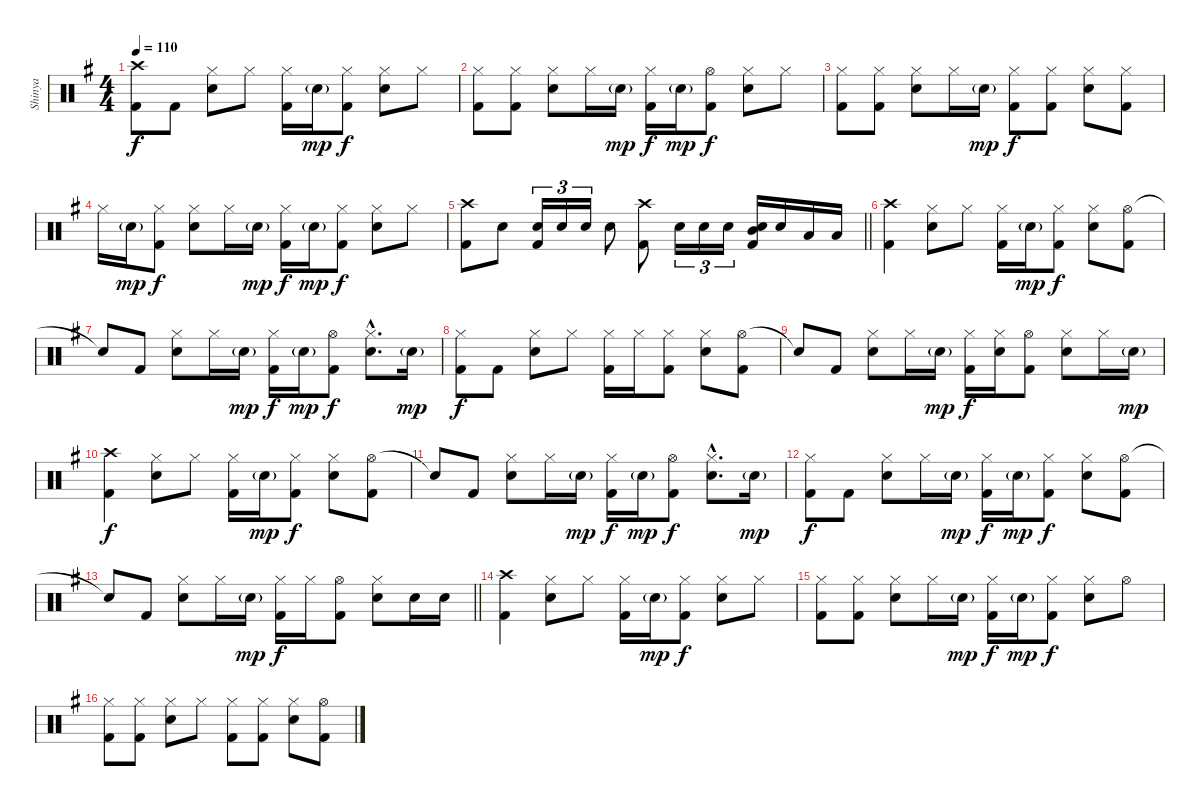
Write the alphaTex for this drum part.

\track ("Shinya" "Shinya") {instrument percussion}
\staff {score}
\articulation defaults
\ts (4 4)
\tempo 110
\clef neutral
\ks g
("Crash high (hit)" "Kick (hit) 2").8{dy f} "Kick (hit) 2".8 ("Hi-Hat (closed)" "Electric Snare (hit)").8 "Hi-Hat (closed)".8 ("Hi-Hat (closed)" "Kick (hit) 2").16 "Electric Snare (hit)"{g}.16{dy mp} ("Hi-Hat (closed)" "Kick (hit) 2").8{dy f} ("Hi-Hat (closed)" "Electric Snare (hit)").8 "Hi-Hat (closed)".8 |
("Hi-Hat (closed)" "Kick (hit) 2").8 ("Hi-Hat (closed)" "Kick (hit) 2").8 ("Hi-Hat (closed)" "Electric Snare (hit)").8 "Hi-Hat (closed)".16 "Electric Snare (hit)"{g}.16{dy mp} ("Hi-Hat (closed)" "Kick (hit) 2").16{dy f} "Electric Snare (hit)"{g}.16{dy mp} ("Hi-Hat (open)" "Kick (hit) 2").8{dy f} ("Hi-Hat (closed)" "Electric Snare (hit)").8 "Hi-Hat (closed)".8 |
("Hi-Hat (closed)" "Kick (hit) 2").8 ("Hi-Hat (closed)" "Kick (hit) 2").8 ("Hi-Hat (closed)" "Electric Snare (hit)").8 "Hi-Hat (closed)".16 "Electric Snare (hit)"{g}.16{dy mp} ("Hi-Hat (closed)" "Kick (hit) 2").8{dy f} ("Hi-Hat (closed)" "Kick (hit) 2").8 ("Hi-Hat (closed)" "Electric Snare (hit)").8 ("Hi-Hat (closed)" "Kick (hit) 2").8 |
"Hi-Hat (closed)".16 "Electric Snare (hit)"{g}.16{dy mp} ("Hi-Hat (closed)" "Kick (hit) 2").8{dy f} ("Hi-Hat (closed)" "Electric Snare (hit)").8 "Hi-Hat (closed)".16 "Electric Snare (hit)"{g}.16{dy mp} ("Hi-Hat (closed)" "Kick (hit) 2").16{dy f} "Electric Snare (hit)"{g}.16{dy mp} ("Hi-Hat (closed)" "Kick (hit) 2").8{dy f} ("Hi-Hat (closed)" "Electric Snare (hit)").8 "Hi-Hat (closed)".8 |
\barLineRight lightlight
("Crash high (hit)" "Kick (hit) 2").8 "Electric Snare (hit)".8 ("Electric Snare (hit)" "Kick (hit) 2").16{tu (3 2)} "Electric Snare (hit)".16{tu (3 2)} "Electric Snare (hit)".16{tu (3 2)} "Electric Snare (hit)".8 ("Crash high (hit)" "Kick (hit) 2").8 "Electric Snare (hit)".16{tu (3 2)} "Electric Snare (hit)".16{tu (3 2)} "Electric Snare (hit)".16{tu (3 2)} ("Mid Tom (hit)" "Electric Snare (hit)" "Kick (hit) 2").16 "Electric Snare (hit)".16 "Low Tom (hit)".16 "Low Tom (hit)".16 |
("Crash high (hit)" "Kick (hit) 2").4 ("Hi-Hat (closed)" "Electric Snare (hit)").8 "Hi-Hat (closed)".8 ("Hi-Hat (closed)" "Kick (hit) 2").16 "Electric Snare (hit)"{g}.16{dy mp} ("Hi-Hat (closed)" "Kick (hit) 2").8{dy f} ("Hi-Hat (closed)" "Electric Snare (hit)").8 ("Hi-Hat (open)" "Kick (hit) 2").8 |
"Snare (hit)"{t}.8 "Kick (hit) 2".8 ("Hi-Hat (closed)" "Electric Snare (hit)").8 "Hi-Hat (closed)".16 "Electric Snare (hit)"{g}.16{dy mp} ("Hi-Hat (closed)" "Kick (hit) 2").16{dy f} "Electric Snare (hit)"{g}.16{dy mp} ("Hi-Hat (open)" "Kick (hit) 2").8{dy f} ("Hi-Hat (closed)"{hac} "Electric Snare (hit)"{hac}).8{d} "Electric Snare (hit)"{g}.16{dy mp} |
("Hi-Hat (closed)" "Kick (hit) 2").8{dy f} "Kick (hit) 2".8 ("Hi-Hat (closed)" "Electric Snare (hit)").8 "Hi-Hat (closed)".8 ("Hi-Hat (closed)" "Kick (hit) 2").16 "Hi-Hat (closed)".16 ("Hi-Hat (closed)" "Kick (hit) 2").8 ("Hi-Hat (closed)" "Electric Snare (hit)").8 ("Hi-Hat (open)" "Kick (hit) 2").8 |
"Snare (hit)"{t}.8 "Kick (hit) 2".8 ("Hi-Hat (closed)" "Electric Snare (hit)").8 "Hi-Hat (closed)".16 "Electric Snare (hit)"{g}.16{dy mp} ("Hi-Hat (closed)" "Kick (hit) 2").16{dy f} ("Hi-Hat (closed)" "Electric Snare (hit)").16 ("Hi-Hat (open)" "Kick (hit) 2").8 ("Hi-Hat (closed)" "Electric Snare (hit)").8 "Hi-Hat (closed)".16 "Electric Snare (hit)"{g}.16{dy mp} |
("Crash high (hit)" "Kick (hit) 2").4{dy f} ("Hi-Hat (closed)" "Electric Snare (hit)").8 "Hi-Hat (closed)".8 ("Hi-Hat (closed)" "Kick (hit) 2").16 "Electric Snare (hit)"{g}.16{dy mp} ("Hi-Hat (closed)" "Kick (hit) 2").8{dy f} ("Hi-Hat (closed)" "Electric Snare (hit)").8 ("Hi-Hat (open)" "Kick (hit) 2").8 |
"Snare (hit)"{t}.8 "Kick (hit) 2".8 ("Hi-Hat (closed)" "Electric Snare (hit)").8 "Hi-Hat (closed)".16 "Electric Snare (hit)"{g}.16{dy mp} ("Hi-Hat (closed)" "Kick (hit) 2").16{dy f} "Electric Snare (hit)"{g}.16{dy mp} ("Hi-Hat (open)" "Kick (hit) 2").8{dy f} ("Hi-Hat (closed)"{hac} "Electric Snare (hit)"{hac}).8{d} "Electric Snare (hit)"{g}.16{dy mp} |
("Hi-Hat (closed)" "Kick (hit) 2").8{dy f} "Kick (hit) 2".8 ("Hi-Hat (closed)" "Electric Snare (hit)").8 "Hi-Hat (closed)".16 "Electric Snare (hit)"{g}.16{dy mp} ("Hi-Hat (closed)" "Kick (hit) 2").16{dy f} "Electric Snare (hit)"{g}.16{dy mp} ("Hi-Hat (closed)" "Kick (hit) 2").8{dy f} ("Hi-Hat (closed)" "Electric Snare (hit)").8 ("Hi-Hat (open)" "Kick (hit) 2").8 |
\barLineRight lightlight "Snare (hit)"{t}.8 "Kick (hit) 2".8
("Hi-Hat (closed)" "Electric Snare (hit)").8 "Hi-Hat (closed)".16 "Electric Snare (hit)"{g}.16{dy mp} ("Hi-Hat (closed)" "Kick (hit) 2").16{dy f} "Hi-Hat (closed)".16 ("Hi-Hat (open)" "Kick (hit) 2").8 ("Hi-Hat (closed)" "Electric Snare (hit)").8 "Electric Snare (hit)".16 "Electric Snare (hit)".16 |
("Crash high (hit)" "Kick (hit) 2").4 ("Hi-Hat (closed)" "Electric Snare (hit)").8 "Hi-Hat (closed)".8 ("Hi-Hat (closed)" "Kick (hit) 2").16 "Electric Snare (hit)"{g}.16{dy mp} ("Hi-Hat (closed)" "Kick (hit) 2").8{dy f} ("Hi-Hat (closed)" "Electric Snare (hit)").8 "Hi-Hat (closed)".8 |
("Hi-Hat (closed)" "Kick (hit) 2").8 ("Hi-Hat (closed)" "Kick (hit) 2").8 ("Hi-Hat (closed)" "Electric Snare (hit)").8 "Hi-Hat (closed)".16 "Electric Snare (hit)"{g}.16{dy mp} ("Hi-Hat (closed)" "Kick (hit) 2").16{dy f} "Electric Snare (hit)"{g}.16{dy mp} ("Hi-Hat (closed)" "Kick (hit) 2").8{dy f} ("Hi-Hat (closed)" "Electric Snare (hit)").8 "Hi-Hat (open)".8 |
("Hi-Hat (closed)" "Kick (hit) 2").8 ("Hi-Hat (closed)" "Kick (hit) 2").8 ("Hi-Hat (closed)" "Electric Snare (hit)").8 "Hi-Hat (closed)".8 ("Hi-Hat (closed)" "Kick (hit) 2").8 ("Hi-Hat (closed)" "Kick (hit) 2").8 ("Hi-Hat (closed)" "Electric Snare (hit)").8 ("Hi-Hat (open)" "Kick (hit) 2").8
